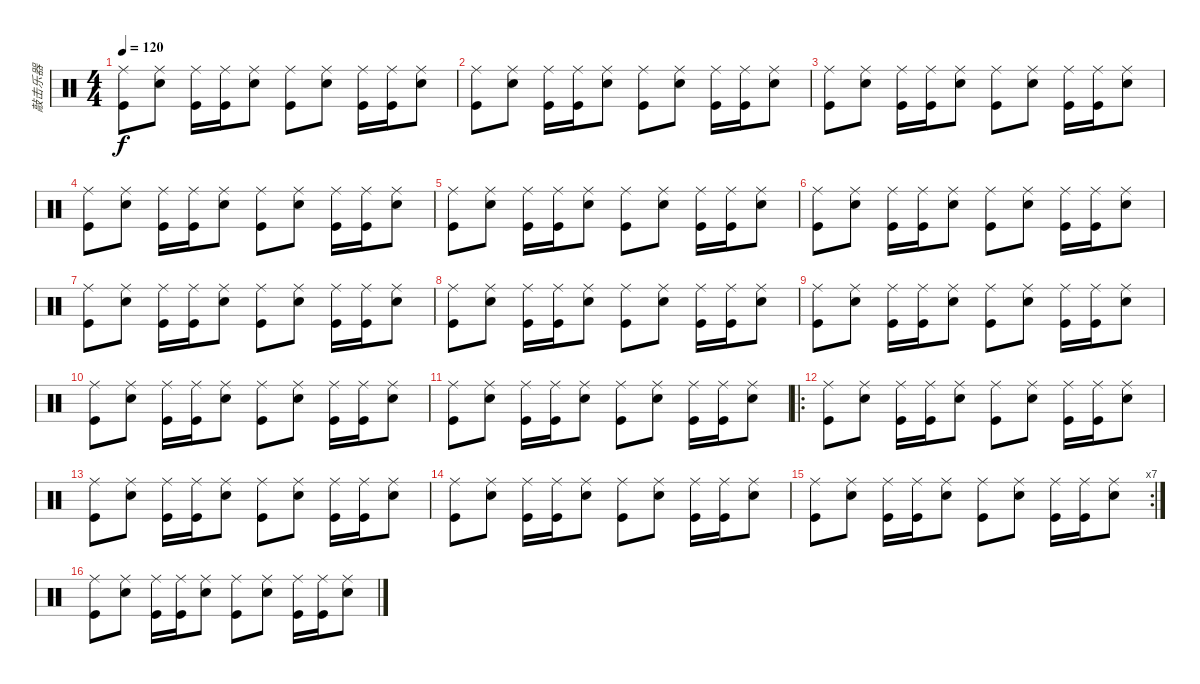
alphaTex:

\track ("敲击乐器" "敲击乐器") {instrument percussion}
\staff {score}
\articulation defaults
\ts (4 4)
\tempo 120
\clef neutral
\ks c
("Ride (middle)" "Kick (hit)").8{dy f} ("Ride (middle)" "Snare (hit) 2").8 ("Ride (middle)" "Kick (hit)").16 ("Ride (middle)" "Kick (hit)").16 ("Ride (middle)" "Snare (hit) 2").8 ("Ride (middle)" "Kick (hit)").8 ("Ride (middle)" "Snare (hit) 2").8 ("Ride (middle)" "Kick (hit)").16 ("Ride (middle)" "Kick (hit)").16 ("Ride (middle)" "Snare (hit) 2").8 |
("Ride (middle)" "Kick (hit)").8 ("Ride (middle)" "Snare (hit) 2").8 ("Ride (middle)" "Kick (hit)").16 ("Ride (middle)" "Kick (hit)").16 ("Ride (middle)" "Snare (hit) 2").8 ("Ride (middle)" "Kick (hit)").8 ("Ride (middle)" "Snare (hit) 2").8 ("Ride (middle)" "Kick (hit)").16 ("Ride (middle)" "Kick (hit)").16 ("Ride (middle)" "Snare (hit) 2").8 |
("Ride (middle)" "Kick (hit)").8 ("Ride (middle)" "Snare (hit) 2").8 ("Ride (middle)" "Kick (hit)").16 ("Ride (middle)" "Kick (hit)").16 ("Ride (middle)" "Snare (hit) 2").8 ("Ride (middle)" "Kick (hit)").8 ("Ride (middle)" "Snare (hit) 2").8 ("Ride (middle)" "Kick (hit)").16 ("Ride (middle)" "Kick (hit)").16 ("Ride (middle)" "Snare (hit) 2").8 |
("Ride (middle)" "Kick (hit)").8 ("Ride (middle)" "Snare (hit) 2").8 ("Ride (middle)" "Kick (hit)").16 ("Ride (middle)" "Kick (hit)").16 ("Ride (middle)" "Snare (hit) 2").8 ("Ride (middle)" "Kick (hit)").8 ("Ride (middle)" "Snare (hit) 2").8 ("Ride (middle)" "Kick (hit)").16 ("Ride (middle)" "Kick (hit)").16 ("Ride (middle)" "Snare (hit) 2").8 |
("Ride (middle)" "Kick (hit)").8 ("Ride (middle)" "Snare (hit) 2").8 ("Ride (middle)" "Kick (hit)").16 ("Ride (middle)" "Kick (hit)").16 ("Ride (middle)" "Snare (hit) 2").8 ("Ride (middle)" "Kick (hit)").8 ("Ride (middle)" "Snare (hit) 2").8 ("Ride (middle)" "Kick (hit)").16 ("Ride (middle)" "Kick (hit)").16 ("Ride (middle)" "Snare (hit) 2").8 |
("Ride (middle)" "Kick (hit)").8 ("Ride (middle)" "Snare (hit) 2").8 ("Ride (middle)" "Kick (hit)").16 ("Ride (middle)" "Kick (hit)").16 ("Ride (middle)" "Snare (hit) 2").8 ("Ride (middle)" "Kick (hit)").8 ("Ride (middle)" "Snare (hit) 2").8 ("Ride (middle)" "Kick (hit)").16 ("Ride (middle)" "Kick (hit)").16 ("Ride (middle)" "Snare (hit) 2").8 |
("Ride (middle)" "Kick (hit)").8 ("Ride (middle)" "Snare (hit) 2").8 ("Ride (middle)" "Kick (hit)").16 ("Ride (middle)" "Kick (hit)").16 ("Ride (middle)" "Snare (hit) 2").8 ("Ride (middle)" "Kick (hit)").8 ("Ride (middle)" "Snare (hit) 2").8 ("Ride (middle)" "Kick (hit)").16 ("Ride (middle)" "Kick (hit)").16 ("Ride (middle)" "Snare (hit) 2").8 |
("Ride (middle)" "Kick (hit)").8 ("Ride (middle)" "Snare (hit) 2").8 ("Ride (middle)" "Kick (hit)").16 ("Ride (middle)" "Kick (hit)").16 ("Ride (middle)" "Snare (hit) 2").8 ("Ride (middle)" "Kick (hit)").8 ("Ride (middle)" "Snare (hit) 2").8 ("Ride (middle)" "Kick (hit)").16 ("Ride (middle)" "Kick (hit)").16 ("Ride (middle)" "Snare (hit) 2").8 |
("Ride (middle)" "Kick (hit)").8 ("Ride (middle)" "Snare (hit) 2").8 ("Ride (middle)" "Kick (hit)").16 ("Ride (middle)" "Kick (hit)").16 ("Ride (middle)" "Snare (hit) 2").8 ("Ride (middle)" "Kick (hit)").8 ("Ride (middle)" "Snare (hit) 2").8 ("Ride (middle)" "Kick (hit)").16 ("Ride (middle)" "Kick (hit)").16 ("Ride (middle)" "Snare (hit) 2").8 |
("Ride (middle)" "Kick (hit)").8 ("Ride (middle)" "Snare (hit) 2").8 ("Ride (middle)" "Kick (hit)").16 ("Ride (middle)" "Kick (hit)").16 ("Ride (middle)" "Snare (hit) 2").8 ("Ride (middle)" "Kick (hit)").8 ("Ride (middle)" "Snare (hit) 2").8 ("Ride (middle)" "Kick (hit)").16 ("Ride (middle)" "Kick (hit)").16 ("Ride (middle)" "Snare (hit) 2").8 |
("Ride (middle)" "Kick (hit)").8 ("Ride (middle)" "Snare (hit) 2").8 ("Ride (middle)" "Kick (hit)").16 ("Ride (middle)" "Kick (hit)").16 ("Ride (middle)" "Snare (hit) 2").8 ("Ride (middle)" "Kick (hit)").8 ("Ride (middle)" "Snare (hit) 2").8 ("Ride (middle)" "Kick (hit)").16 ("Ride (middle)" "Kick (hit)").16 ("Ride (middle)" "Snare (hit) 2").8 |
\ro
("Ride (middle)" "Kick (hit)").8 ("Ride (middle)" "Snare (hit) 2").8 ("Ride (middle)" "Kick (hit)").16 ("Ride (middle)" "Kick (hit)").16 ("Ride (middle)" "Snare (hit) 2").8 ("Ride (middle)" "Kick (hit)").8 ("Ride (middle)" "Snare (hit) 2").8 ("Ride (middle)" "Kick (hit)").16 ("Ride (middle)" "Kick (hit)").16 ("Ride (middle)" "Snare (hit) 2").8 |
("Ride (middle)" "Kick (hit)").8 ("Ride (middle)" "Snare (hit) 2").8 ("Ride (middle)" "Kick (hit)").16 ("Ride (middle)" "Kick (hit)").16 ("Ride (middle)" "Snare (hit) 2").8 ("Ride (middle)" "Kick (hit)").8 ("Ride (middle)" "Snare (hit) 2").8 ("Ride (middle)" "Kick (hit)").16 ("Ride (middle)" "Kick (hit)").16 ("Ride (middle)" "Snare (hit) 2").8 |
("Ride (middle)" "Kick (hit)").8 ("Ride (middle)" "Snare (hit) 2").8 ("Ride (middle)" "Kick (hit)").16 ("Ride (middle)" "Kick (hit)").16 ("Ride (middle)" "Snare (hit) 2").8 ("Ride (middle)" "Kick (hit)").8 ("Ride (middle)" "Snare (hit) 2").8 ("Ride (middle)" "Kick (hit)").16 ("Ride (middle)" "Kick (hit)").16 ("Ride (middle)" "Snare (hit) 2").8 |
\rc 7
("Ride (middle)" "Kick (hit)").8 ("Ride (middle)" "Snare (hit) 2").8 ("Ride (middle)" "Kick (hit)").16 ("Ride (middle)" "Kick (hit)").16 ("Ride (middle)" "Snare (hit) 2").8 ("Ride (middle)" "Kick (hit)").8 ("Ride (middle)" "Snare (hit) 2").8 ("Ride (middle)" "Kick (hit)").16 ("Ride (middle)" "Kick (hit)").16 ("Ride (middle)" "Snare (hit) 2").8 |
("Ride (middle)" "Kick (hit)").8 ("Ride (middle)" "Snare (hit) 2").8 ("Ride (middle)" "Kick (hit)").16 ("Ride (middle)" "Kick (hit)").16 ("Ride (middle)" "Snare (hit) 2").8 ("Ride (middle)" "Kick (hit)").8 ("Ride (middle)" "Snare (hit) 2").8 ("Ride (middle)" "Kick (hit)").16 ("Ride (middle)" "Kick (hit)").16 ("Ride (middle)" "Snare (hit) 2").8
